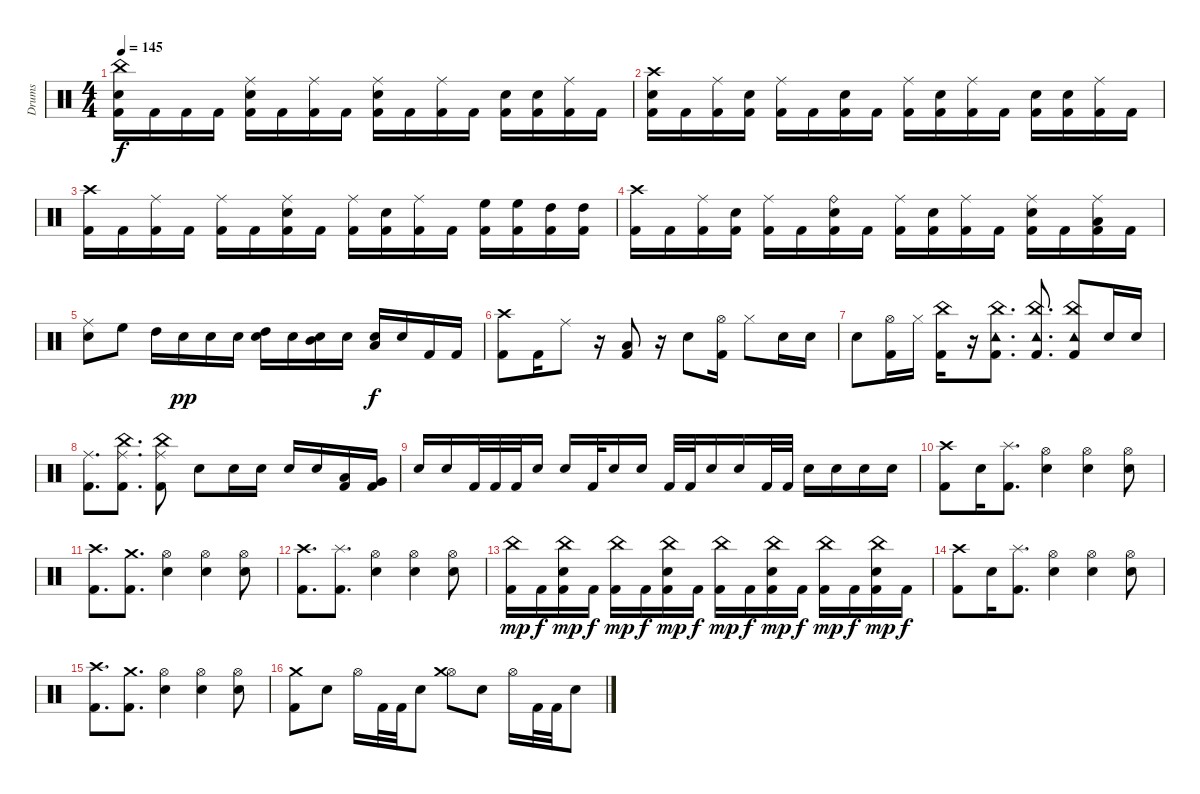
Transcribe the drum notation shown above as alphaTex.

\track ("Drums" "Drums") {instrument percussion}
\staff {score}
\articulation defaults
\ts (4 4)
\tempo 145
\clef neutral
\ks c
("Electric Snare (hit)" "Kick (hit) 2" "China (hit)").16{dy f} "Kick (hit) 2".16 "Kick (hit) 2".16 "Kick (hit) 2".16 ("Electric Snare (hit)" "Kick (hit) 2" "Ride (middle)").16 "Kick (hit) 2".16 ("Kick (hit) 2" "Ride (middle)").16 "Kick (hit) 2".16 ("Electric Snare (hit)" "Kick (hit) 2" "Ride (middle)").16 "Kick (hit) 2".16 ("Kick (hit) 2" "Ride (middle)").16 "Kick (hit) 2".16 ("Kick (hit) 2" "Electric Snare (hit)").16 ("Kick (hit) 2" "Electric Snare (hit)").16 ("Kick (hit) 2" "Ride (middle)").16 "Kick (hit) 2".16 |
("Kick (hit) 2" "Electric Snare (hit)" "Crash high (hit)").16 "Kick (hit) 2".16 ("Kick (hit) 2" "Ride (middle)").16 ("Kick (hit) 2" "Electric Snare (hit)").16 ("Kick (hit) 2" "Ride (middle)").16 "Kick (hit) 2".16 ("Kick (hit) 2" "Electric Snare (hit)").16 "Kick (hit) 2".16 ("Kick (hit) 2" "Ride (middle)").16 ("Kick (hit) 2" "Electric Snare (hit)").16 ("Kick (hit) 2" "Ride (middle)").16 "Kick (hit) 2".16 ("Kick (hit) 2" "Electric Snare (hit)").16 ("Kick (hit) 2" "Electric Snare (hit)").16 ("Kick (hit) 2" "Ride (middle)").16 "Kick (hit) 2".16 |
("Crash high (hit)" "Kick (hit) 2").16 "Kick (hit) 2".16 ("Kick (hit) 2" "Ride (middle)").16 "Kick (hit) 2".16 ("Kick (hit) 2" "Ride (middle)").16 "Kick (hit) 2".16 ("Kick (hit) 2" "Electric Snare (hit)" "Ride (middle)").16 "Kick (hit) 2".16 ("Kick (hit) 2" "Ride (middle)").16 ("Kick (hit) 2" "Electric Snare (hit)").16 ("Kick (hit) 2" "Ride (middle)").16 "Kick (hit) 2".16 ("Kick (hit) 2" "High Floor Tom (hit)").16 ("Kick (hit) 2" "High Floor Tom (hit)").16 ("Kick (hit) 2" "High Tom (hit)").16 ("Kick (hit) 2" "High Tom (hit)").16 |
("Kick (hit) 2" "Crash high (hit)").16 "Kick (hit) 2".16 ("Kick (hit) 2" "Ride (middle)").16 ("Kick (hit) 2" "Electric Snare (hit)").16 ("Kick (hit) 2" "Ride (middle)").16 "Kick (hit) 2".16 ("Kick (hit) 2" "Ride (bell)" "Electric Snare (hit)").16 "Kick (hit) 2".16 ("Kick (hit) 2" "Ride (middle)").16 ("Kick (hit) 2" "Electric Snare (hit)").16 ("Kick (hit) 2" "Ride (middle)").16 "Kick (hit) 2".16 ("Kick (hit) 2" "Electric Snare (hit)" "Ride (middle)").16 "Kick (hit) 2".16 ("Kick (hit) 2" "Low Floor Tom (hit)" "Ride (middle)").16 "Kick (hit) 2".16 |
("Electric Snare (hit)" "Ride (middle)").8 "High Floor Tom (hit)".8 "High Tom (hit)".16 "Electric Snare (hit)".16{dy pp} "Electric Snare (hit)".16 "Electric Snare (hit)".16 ("High Tom (hit)" "Electric Snare (hit)").16 "Electric Snare (hit)".16 ("Mid Tom (hit)" "Electric Snare (hit)").16 "Electric Snare (hit)".16 ("Electric Snare (hit)" "Low Tom (hit)").16{dy f} "Electric Snare (hit)".16 "Kick (hit) 2".16 "Kick (hit) 2".16 |
("Crash high (hit)" "Kick (hit) 2").8 "Kick (hit) 2".16 "Ride (middle)".8 r.16 ("Low Tom (hit)" "Kick (hit) 2").8 r.16 "Electric Snare (hit)".8 ("Hi-Hat (open)" "Kick (hit) 2").16 "Hi-Hat (closed)".8 "Electric Snare (hit)".16 "Electric Snare (hit)".16 |
"Electric Snare (hit)".8 ("Kick (hit) 2" "Hi-Hat (open)").16 "Hi-Hat (closed)".16 ("Kick (hit) 2" "China (hit)").16 r.16 ("Tambourine (hit)" "Kick (hit) 2" "China (hit)").8{d} ("Tambourine (hit)" "China (hit)" "Kick (hit) 2").8{d} ("Tambourine (hit)" "China (hit)" "Kick (hit) 2").8 "Electric Snare (hit)".16 "Electric Snare (hit)".16 |
("Kick (hit) 2" "Ride (middle)").8{d} ("Ride (middle)" "Kick (hit) 2" "China (hit)").8{d} ("China (hit)" "Ride (middle)" "Kick (hit) 2").8 "Electric Snare (hit)".8 "Electric Snare (hit)".16 "Electric Snare (hit)".16 "Electric Snare (hit)".16 "Electric Snare (hit)".16 ("Kick (hit) 2" "Low Tom (hit)").16 ("Kick (hit) 2" "Very Low Tom (hit)").16 |
"Electric Snare (hit)".16 "Electric Snare (hit)".16 "Kick (hit) 2".32 "Kick (hit) 2".32 "Kick (hit) 2".32 "Electric Snare (hit)".16 "Electric Snare (hit)".16 "Kick (hit) 2".32 "Electric Snare (hit)".16 "Electric Snare (hit)".16 "Kick (hit) 2".32 "Kick (hit) 2".32 "Electric Snare (hit)".16 "Electric Snare (hit)".16 "Kick (hit) 2".32 "Kick (hit) 2".32 "Electric Snare (hit)".16 "Electric Snare (hit)".16 "Electric Snare (hit)".16 "Electric Snare (hit)".16 |
("Crash high (hit)" "Kick (hit) 2").8 "Electric Snare (hit)".16 ("Splash (hit)" "Kick (hit) 2").8{d} ("Hi-Hat (open)" "Electric Snare (hit)").4 ("Hi-Hat (open)" "Electric Snare (hit)").4 ("Hi-Hat (open)" "Electric Snare (hit)").8 |
("Kick (hit) 2" "Crash high (hit)").8{d} ("Kick (hit) 2" "Crash medium (hit)").8{d} ("Hi-Hat (open)" "Electric Snare (hit)").4 ("Hi-Hat (open)" "Electric Snare (hit)").4 ("Hi-Hat (open)" "Electric Snare (hit)").8 |
("Crash high (hit)" "Kick (hit) 2").8{d} ("Splash (hit)" "Kick (hit) 2").8{d} ("Hi-Hat (open)" "Electric Snare (hit)").4 ("Hi-Hat (open)" "Electric Snare (hit)").4 ("Hi-Hat (open)" "Electric Snare (hit)").8 |
("Kick (hit) 2" "China (hit)").16{dy mp} "Kick (hit) 2".16{dy f} ("Electric Snare (hit)" "Kick (hit) 2" "China (hit)").16{dy mp} "Kick (hit) 2".16{dy f} ("Kick (hit) 2" "China (hit)").16{dy mp} "Kick (hit) 2".16{dy f} ("Electric Snare (hit)" "Kick (hit) 2" "China (hit)").16{dy mp} "Kick (hit) 2".16{dy f} ("Kick (hit) 2" "China (hit)").16{dy mp} "Kick (hit) 2".16{dy f} ("Electric Snare (hit)" "Kick (hit) 2" "China (hit)").16{dy mp} "Kick (hit) 2".16{dy f} ("Kick (hit) 2" "China (hit)").16{dy mp} "Kick (hit) 2".16{dy f} ("Electric Snare (hit)" "Kick (hit) 2" "China (hit)").16{dy mp} "Kick (hit) 2".16{dy f} |
("Kick (hit) 2" "Crash high (hit)").8 "Electric Snare (hit)".16 ("Splash (hit)" "Kick (hit) 2").8{d} ("Hi-Hat (open)" "Electric Snare (hit)").4 ("Hi-Hat (open)" "Electric Snare (hit)").4 ("Hi-Hat (open)" "Electric Snare (hit)").8 |
("Kick (hit) 2" "Crash high (hit)").8{d} ("Kick (hit) 2" "Crash medium (hit)").8{d} ("Hi-Hat (open)" "Electric Snare (hit)").4 ("Hi-Hat (open)" "Electric Snare (hit)").4 ("Hi-Hat (open)" "Electric Snare (hit)").8 |
("Kick (hit) 2" "Crash medium (hit)").8 "Electric Snare (hit)".8 "Hi-Hat (open)".16 "Kick (hit) 2".32 "Kick (hit) 2".32 "Electric Snare (hit)".8 ("Hi-Hat (open)" "Crash medium (hit)").8 "Electric Snare (hit)".8 "Hi-Hat (open)".16 "Kick (hit) 2".32 "Kick (hit) 2".32 "Electric Snare (hit)".8
